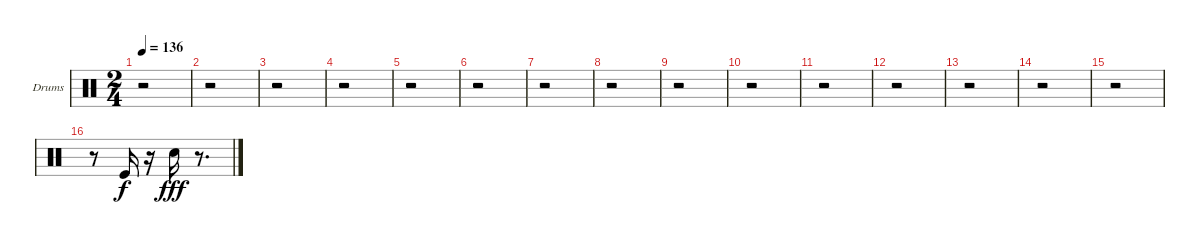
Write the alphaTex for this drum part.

\bracketExtendMode groupsimilarinstruments
\firstSystemTrackNameOrientation horizontal
\otherSystemsTrackNameOrientation horizontal
\track ("Drumkit" "Drums") {solo instrument percussion}
\staff {score}
\articulation defaults
\ts (2 4)
\beaming (8 2 2 2 2)
\tempo 136
\clef neutral
\ks c
r.2{dy f} |
r.2 |
r.2 |
r.2 |
r.2 |
r.2 |
r.2 |
r.2 |
r.2 |
r.2 |
r.2 |
r.2 |
r.2 |
r.2 |
r.2 |
r.8 "Kick (hit)".16 r.16 "Snare (hit) 2".16{dy fff} r.8{d}
